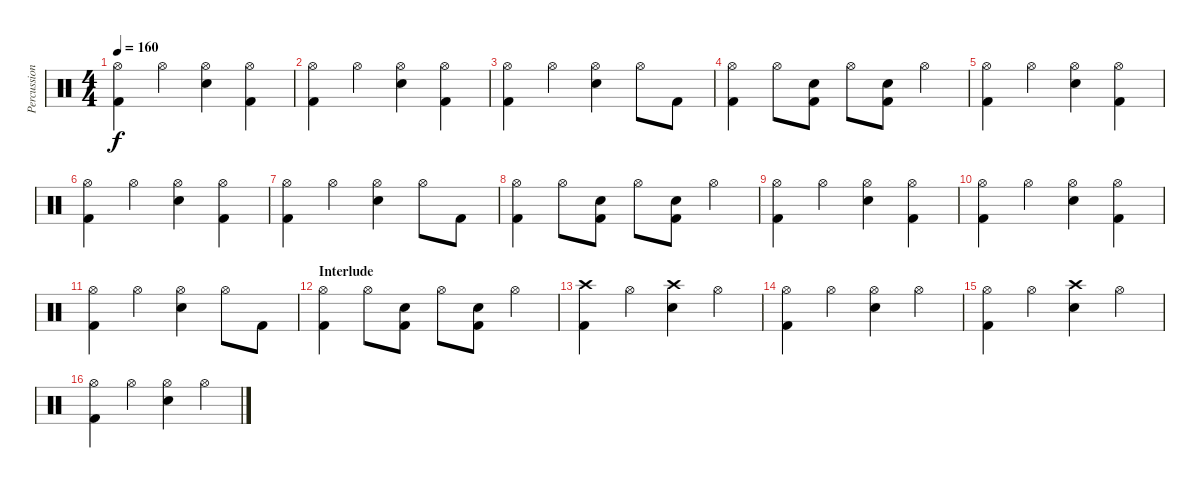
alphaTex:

\track ("Percussion" "Percussion") {instrument percussion}
\staff {score}
\articulation defaults
\ts (4 4)
\tempo 160
\clef neutral
\ks c
("Hi-Hat (open)" "Kick (hit) 2").4{dy f} "Hi-Hat (open)".4 ("Hi-Hat (open)" "Electric Snare (hit)").4 ("Hi-Hat (open)" "Kick (hit) 2").4 |
("Hi-Hat (open)" "Kick (hit) 2").4 "Hi-Hat (open)".4 ("Hi-Hat (open)" "Electric Snare (hit)").4 ("Hi-Hat (open)" "Kick (hit) 2").4 |
("Hi-Hat (open)" "Kick (hit) 2").4 "Hi-Hat (open)".4 ("Hi-Hat (open)" "Electric Snare (hit)").4 "Hi-Hat (open)".8 "Kick (hit) 2".8 |
("Hi-Hat (open)" "Kick (hit) 2").4 "Hi-Hat (open)".8 ("Electric Snare (hit)" "Kick (hit) 2").8 "Hi-Hat (open)".8 ("Electric Snare (hit)" "Kick (hit) 2").8 "Hi-Hat (open)".4 |
("Hi-Hat (open)" "Kick (hit) 2").4 "Hi-Hat (open)".4 ("Hi-Hat (open)" "Electric Snare (hit)").4 ("Hi-Hat (open)" "Kick (hit) 2").4 |
("Hi-Hat (open)" "Kick (hit) 2").4 "Hi-Hat (open)".4 ("Hi-Hat (open)" "Electric Snare (hit)").4 ("Hi-Hat (open)" "Kick (hit) 2").4 |
("Hi-Hat (open)" "Kick (hit) 2").4 "Hi-Hat (open)".4 ("Hi-Hat (open)" "Electric Snare (hit)").4 "Hi-Hat (open)".8 "Kick (hit) 2".8 |
("Hi-Hat (open)" "Kick (hit) 2").4 "Hi-Hat (open)".8 ("Electric Snare (hit)" "Kick (hit) 2").8 "Hi-Hat (open)".8 ("Electric Snare (hit)" "Kick (hit) 2").8 "Hi-Hat (open)".4 |
("Hi-Hat (open)" "Kick (hit) 2").4 "Hi-Hat (open)".4 ("Hi-Hat (open)" "Electric Snare (hit)").4 ("Hi-Hat (open)" "Kick (hit) 2").4 |
("Hi-Hat (open)" "Kick (hit) 2").4 "Hi-Hat (open)".4 ("Hi-Hat (open)" "Electric Snare (hit)").4 ("Hi-Hat (open)" "Kick (hit) 2").4 |
("Hi-Hat (open)" "Kick (hit) 2").4 "Hi-Hat (open)".4 ("Hi-Hat (open)" "Electric Snare (hit)").4 "Hi-Hat (open)".8 "Kick (hit) 2".8 |
\section ("" "Interlude")
("Hi-Hat (open)" "Kick (hit) 2").4 "Hi-Hat (open)".8 ("Electric Snare (hit)" "Kick (hit) 2").8 "Hi-Hat (open)".8 ("Electric Snare (hit)" "Kick (hit) 2").8 "Hi-Hat (open)".4 |
("Crash high (hit)" "Kick (hit) 2").4 "Hi-Hat (open)".4 ("Crash high (hit)" "Electric Snare (hit)").4 "Hi-Hat (open)".4 |
("Hi-Hat (open)" "Kick (hit) 2").4 "Hi-Hat (open)".4 ("Hi-Hat (open)" "Electric Snare (hit)").4 "Hi-Hat (open)".4 |
("Hi-Hat (open)" "Kick (hit) 2").4 "Hi-Hat (open)".4 ("Crash high (hit)" "Electric Snare (hit)").4 "Hi-Hat (open)".4 |
("Hi-Hat (open)" "Kick (hit) 2").4 "Hi-Hat (open)".4 ("Hi-Hat (open)" "Electric Snare (hit)").4 "Hi-Hat (open)".4
